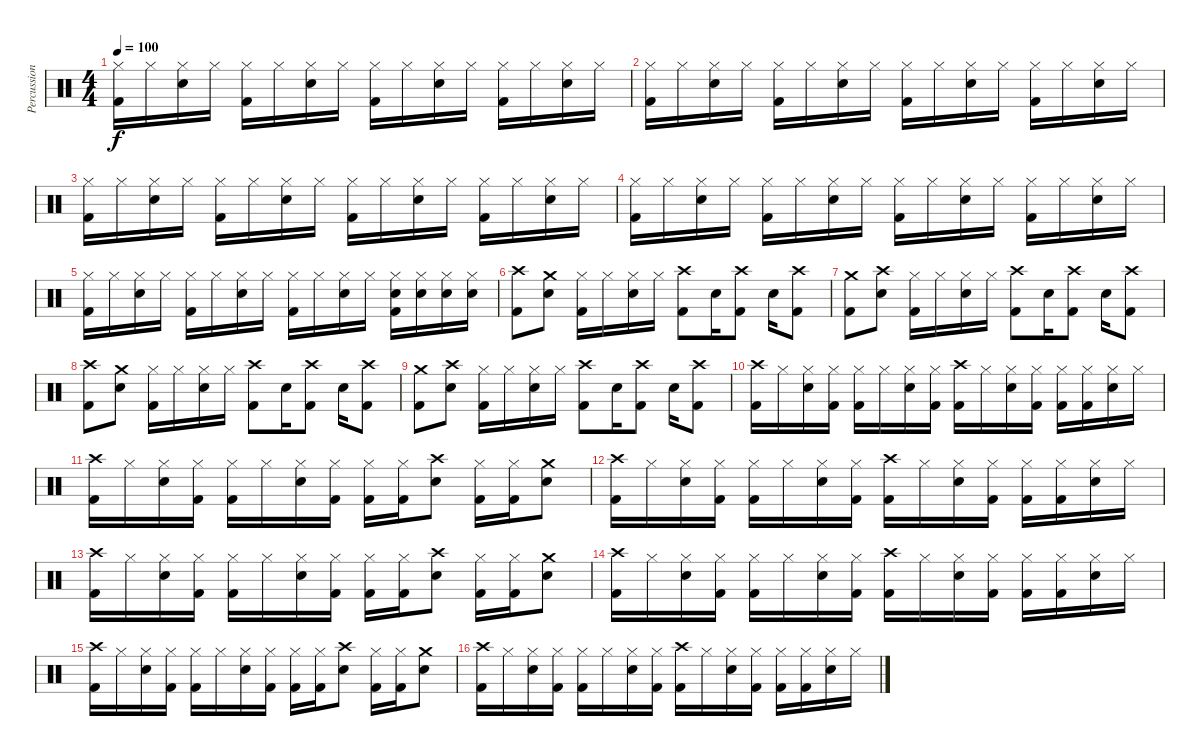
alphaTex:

\track ("Percussion" "Percussion") {instrument percussion}
\staff {score}
\articulation defaults
\ts (4 4)
\tempo 100
\clef neutral
\ks c
("Hi-Hat (closed)" "Kick (hit) 2").16{dy f} "Hi-Hat (closed)".16 ("Hi-Hat (closed)" "Snare (hit) 2").16 "Hi-Hat (closed)".16 ("Hi-Hat (closed)" "Kick (hit) 2").16 "Hi-Hat (closed)".16 ("Hi-Hat (closed)" "Snare (hit) 2").16 "Hi-Hat (closed)".16 ("Hi-Hat (closed)" "Kick (hit) 2").16 "Hi-Hat (closed)".16 ("Hi-Hat (closed)" "Snare (hit) 2").16 "Hi-Hat (closed)".16 ("Hi-Hat (closed)" "Kick (hit) 2").16 "Hi-Hat (closed)".16 ("Hi-Hat (closed)" "Snare (hit) 2").16 "Hi-Hat (closed)".16 |
("Hi-Hat (closed)" "Kick (hit) 2").16 "Hi-Hat (closed)".16 ("Hi-Hat (closed)" "Snare (hit) 2").16 "Hi-Hat (closed)".16 ("Hi-Hat (closed)" "Kick (hit) 2").16 "Hi-Hat (closed)".16 ("Hi-Hat (closed)" "Snare (hit) 2").16 "Hi-Hat (closed)".16 ("Hi-Hat (closed)" "Kick (hit) 2").16 "Hi-Hat (closed)".16 ("Hi-Hat (closed)" "Snare (hit) 2").16 "Hi-Hat (closed)".16 ("Hi-Hat (closed)" "Kick (hit) 2").16 "Hi-Hat (closed)".16 ("Hi-Hat (closed)" "Snare (hit) 2").16 "Hi-Hat (closed)".16 |
("Hi-Hat (closed)" "Kick (hit) 2").16 "Hi-Hat (closed)".16 ("Hi-Hat (closed)" "Snare (hit) 2").16 "Hi-Hat (closed)".16 ("Hi-Hat (closed)" "Kick (hit) 2").16 "Hi-Hat (closed)".16 ("Hi-Hat (closed)" "Snare (hit) 2").16 "Hi-Hat (closed)".16 ("Hi-Hat (closed)" "Kick (hit) 2").16 "Hi-Hat (closed)".16 ("Hi-Hat (closed)" "Snare (hit) 2").16 "Hi-Hat (closed)".16 ("Hi-Hat (closed)" "Kick (hit) 2").16 "Hi-Hat (closed)".16 ("Hi-Hat (closed)" "Snare (hit) 2").16 "Hi-Hat (closed)".16 |
("Hi-Hat (closed)" "Kick (hit) 2").16 "Hi-Hat (closed)".16 ("Hi-Hat (closed)" "Snare (hit) 2").16 "Hi-Hat (closed)".16 ("Hi-Hat (closed)" "Kick (hit) 2").16 "Hi-Hat (closed)".16 ("Hi-Hat (closed)" "Snare (hit) 2").16 "Hi-Hat (closed)".16 ("Hi-Hat (closed)" "Kick (hit) 2").16 "Hi-Hat (closed)".16 ("Hi-Hat (closed)" "Snare (hit) 2").16 "Hi-Hat (closed)".16 ("Hi-Hat (closed)" "Kick (hit) 2").16 "Hi-Hat (closed)".16 ("Hi-Hat (closed)" "Snare (hit) 2").16 "Hi-Hat (closed)".16 |
("Hi-Hat (closed)" "Kick (hit) 2").16 "Hi-Hat (closed)".16 ("Hi-Hat (closed)" "Snare (hit) 2").16 "Hi-Hat (closed)".16 ("Hi-Hat (closed)" "Kick (hit) 2").16 "Hi-Hat (closed)".16 ("Hi-Hat (closed)" "Snare (hit) 2").16 "Hi-Hat (closed)".16 ("Hi-Hat (closed)" "Kick (hit) 2").16 "Hi-Hat (closed)".16 ("Hi-Hat (closed)" "Snare (hit) 2").16 "Hi-Hat (closed)".16 ("Hi-Hat (closed)" "Snare (hit) 2" "Kick (hit) 2").16 ("Hi-Hat (closed)" "Snare (hit) 2").16 ("Hi-Hat (closed)" "Snare (hit) 2").16 ("Hi-Hat (closed)" "Snare (hit) 2").16 |
("Crash high (hit)" "Kick (hit) 2").8 ("Crash medium (hit)" "Snare (hit) 2").8 ("Hi-Hat (closed)" "Kick (hit) 2").16 "Hi-Hat (closed)".16 ("Hi-Hat (closed)" "Snare (hit) 2").16 "Hi-Hat (closed)".16 ("Crash high (hit)" "Kick (hit) 2").8 "Snare (hit) 2".16 ("Crash high (hit)" "Kick (hit) 2").8 "Snare (hit) 2".16 ("Crash high (hit)" "Kick (hit) 2").8 |
("Crash medium (hit)" "Kick (hit) 2").8 ("Crash high (hit)" "Snare (hit) 2").8 ("Hi-Hat (closed)" "Kick (hit) 2").16 "Hi-Hat (closed)".16 ("Hi-Hat (closed)" "Snare (hit) 2").16 "Hi-Hat (closed)".16 ("Crash high (hit)" "Kick (hit) 2").8 "Snare (hit) 2".16 ("Crash high (hit)" "Kick (hit) 2").8 "Snare (hit) 2".16 ("Crash high (hit)" "Kick (hit) 2").8 |
("Crash high (hit)" "Kick (hit) 2").8 ("Crash medium (hit)" "Snare (hit) 2").8 ("Hi-Hat (closed)" "Kick (hit) 2").16 "Hi-Hat (closed)".16 ("Hi-Hat (closed)" "Snare (hit) 2").16 "Hi-Hat (closed)".16 ("Crash high (hit)" "Kick (hit) 2").8 "Snare (hit) 2".16 ("Crash high (hit)" "Kick (hit) 2").8 "Snare (hit) 2".16 ("Crash high (hit)" "Kick (hit) 2").8 |
("Crash medium (hit)" "Kick (hit) 2").8 ("Crash high (hit)" "Snare (hit) 2").8 ("Hi-Hat (closed)" "Kick (hit) 2").16 "Hi-Hat (closed)".16 ("Hi-Hat (closed)" "Snare (hit) 2").16 "Hi-Hat (closed)".16 ("Crash high (hit)" "Kick (hit) 2").8 "Snare (hit) 2".16 ("Crash high (hit)" "Kick (hit) 2").8 "Snare (hit) 2".16 ("Crash high (hit)" "Kick (hit) 2").8 |
("Crash high (hit)" "Kick (hit) 2").16 "Hi-Hat (closed)".16 ("Hi-Hat (closed)" "Snare (hit) 2").16 ("Hi-Hat (closed)" "Kick (hit) 2").16 ("Hi-Hat (closed)" "Kick (hit) 2").16 "Hi-Hat (closed)".16 ("Hi-Hat (closed)" "Snare (hit) 2").16 ("Hi-Hat (closed)" "Kick (hit) 2").16 ("Crash high (hit)" "Kick (hit) 2").16 "Hi-Hat (closed)".16 ("Hi-Hat (closed)" "Snare (hit) 2").16 ("Hi-Hat (closed)" "Kick (hit) 2").16 ("Hi-Hat (closed)" "Kick (hit) 2").16 ("Hi-Hat (closed)" "Kick (hit) 2").16 ("Hi-Hat (closed)" "Snare (hit) 2").16 "Hi-Hat (closed)".16 |
("Crash high (hit)" "Kick (hit) 2").16 "Hi-Hat (closed)".16 ("Hi-Hat (closed)" "Snare (hit) 2").16 ("Hi-Hat (closed)" "Kick (hit) 2").16 ("Hi-Hat (closed)" "Kick (hit) 2").16 "Hi-Hat (closed)".16 ("Hi-Hat (closed)" "Snare (hit) 2").16 ("Hi-Hat (closed)" "Kick (hit) 2").16 ("Hi-Hat (closed)" "Kick (hit) 2").16 ("Hi-Hat (closed)" "Kick (hit) 2").16 ("Crash high (hit)" "Snare (hit) 2").8 ("Hi-Hat (closed)" "Kick (hit) 2").16 ("Hi-Hat (closed)" "Kick (hit) 2").16 ("Crash medium (hit)" "Snare (hit) 2").8 |
("Crash high (hit)" "Kick (hit) 2").16 "Hi-Hat (closed)".16 ("Hi-Hat (closed)" "Snare (hit) 2").16 ("Hi-Hat (closed)" "Kick (hit) 2").16 ("Hi-Hat (closed)" "Kick (hit) 2").16 "Hi-Hat (closed)".16 ("Hi-Hat (closed)" "Snare (hit) 2").16 ("Hi-Hat (closed)" "Kick (hit) 2").16 ("Crash high (hit)" "Kick (hit) 2").16 "Hi-Hat (closed)".16 ("Hi-Hat (closed)" "Snare (hit) 2").16 ("Hi-Hat (closed)" "Kick (hit) 2").16 ("Hi-Hat (closed)" "Kick (hit) 2").16 ("Hi-Hat (closed)" "Kick (hit) 2").16 ("Hi-Hat (closed)" "Snare (hit) 2").16 "Hi-Hat (closed)".16 |
("Crash high (hit)" "Kick (hit) 2").16 "Hi-Hat (closed)".16 ("Hi-Hat (closed)" "Snare (hit) 2").16 ("Hi-Hat (closed)" "Kick (hit) 2").16 ("Hi-Hat (closed)" "Kick (hit) 2").16 "Hi-Hat (closed)".16 ("Hi-Hat (closed)" "Snare (hit) 2").16 ("Hi-Hat (closed)" "Kick (hit) 2").16 ("Hi-Hat (closed)" "Kick (hit) 2").16 ("Hi-Hat (closed)" "Kick (hit) 2").16 ("Crash high (hit)" "Snare (hit) 2").8 ("Hi-Hat (closed)" "Kick (hit) 2").16 ("Hi-Hat (closed)" "Kick (hit) 2").16 ("Crash medium (hit)" "Snare (hit) 2").8 |
("Crash high (hit)" "Kick (hit) 2").16 "Hi-Hat (closed)".16 ("Hi-Hat (closed)" "Snare (hit) 2").16 ("Hi-Hat (closed)" "Kick (hit) 2").16 ("Hi-Hat (closed)" "Kick (hit) 2").16 "Hi-Hat (closed)".16 ("Hi-Hat (closed)" "Snare (hit) 2").16 ("Hi-Hat (closed)" "Kick (hit) 2").16 ("Crash high (hit)" "Kick (hit) 2").16 "Hi-Hat (closed)".16 ("Hi-Hat (closed)" "Snare (hit) 2").16 ("Hi-Hat (closed)" "Kick (hit) 2").16 ("Hi-Hat (closed)" "Kick (hit) 2").16 ("Hi-Hat (closed)" "Kick (hit) 2").16 ("Hi-Hat (closed)" "Snare (hit) 2").16 "Hi-Hat (closed)".16 |
("Crash high (hit)" "Kick (hit) 2").16 "Hi-Hat (closed)".16 ("Hi-Hat (closed)" "Snare (hit) 2").16 ("Hi-Hat (closed)" "Kick (hit) 2").16 ("Hi-Hat (closed)" "Kick (hit) 2").16 "Hi-Hat (closed)".16 ("Hi-Hat (closed)" "Snare (hit) 2").16 ("Hi-Hat (closed)" "Kick (hit) 2").16 ("Hi-Hat (closed)" "Kick (hit) 2").16 ("Hi-Hat (closed)" "Kick (hit) 2").16 ("Crash high (hit)" "Snare (hit) 2").8 ("Hi-Hat (closed)" "Kick (hit) 2").16 ("Hi-Hat (closed)" "Kick (hit) 2").16 ("Crash medium (hit)" "Snare (hit) 2").8 |
("Crash high (hit)" "Kick (hit) 2").16 "Hi-Hat (closed)".16 ("Hi-Hat (closed)" "Snare (hit) 2").16 ("Hi-Hat (closed)" "Kick (hit) 2").16 ("Hi-Hat (closed)" "Kick (hit) 2").16 "Hi-Hat (closed)".16 ("Hi-Hat (closed)" "Snare (hit) 2").16 ("Hi-Hat (closed)" "Kick (hit) 2").16 ("Crash high (hit)" "Kick (hit) 2").16 "Hi-Hat (closed)".16 ("Hi-Hat (closed)" "Snare (hit) 2").16 ("Hi-Hat (closed)" "Kick (hit) 2").16 ("Hi-Hat (closed)" "Kick (hit) 2").16 ("Hi-Hat (closed)" "Kick (hit) 2").16 ("Hi-Hat (closed)" "Snare (hit) 2").16 "Hi-Hat (closed)".16
